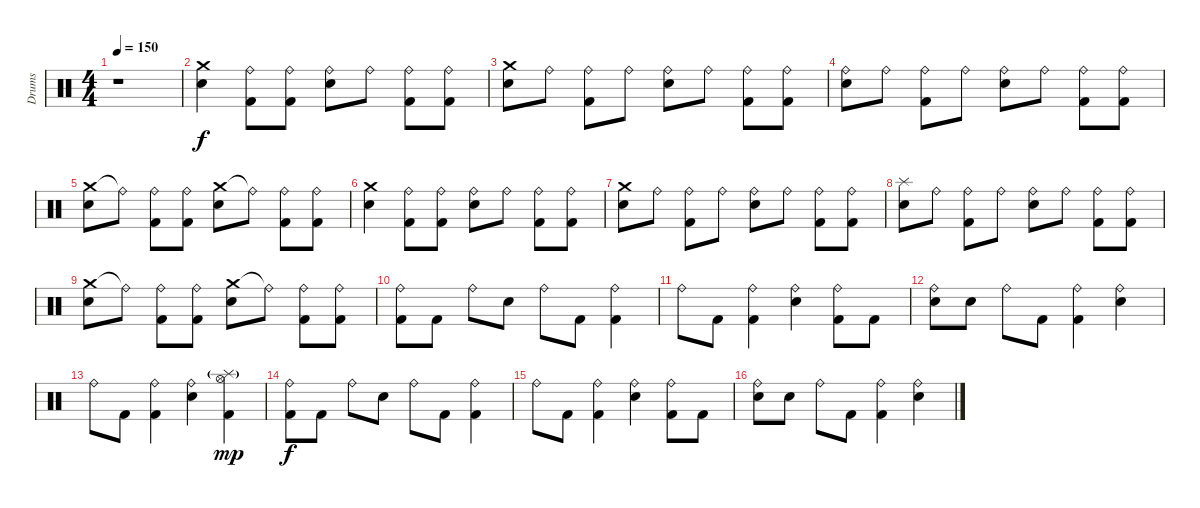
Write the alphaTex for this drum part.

\track ("Drums" "Drums") {instrument percussion}
\staff {score}
\articulation defaults
\ts (4 4)
\tempo 150
\clef neutral
\ks c
r.1{dy f} |
("Crash medium (hit)" "Electric Snare (hit)").4 ("Ride (bell)" "Kick (hit) 2").8 ("Ride (bell)" "Kick (hit) 2").8 ("Ride (bell)" "Electric Snare (hit)").8 "Ride (bell)".8 ("Ride (bell)" "Kick (hit) 2").8 ("Ride (bell)" "Kick (hit) 2").8 |
("Crash medium (hit)" "Electric Snare (hit)").8 "Ride (bell)".8 ("Ride (bell)" "Kick (hit) 2").8 "Ride (bell)".8 ("Ride (bell)" "Electric Snare (hit)").8 "Ride (bell)".8 ("Ride (bell)" "Kick (hit) 2").8 ("Ride (bell)" "Kick (hit) 2").8 |
("Ride (bell)" "Electric Snare (hit)").8 "Ride (bell)".8 ("Ride (bell)" "Kick (hit) 2").8 "Ride (bell)".8 ("Ride (bell)" "Electric Snare (hit)").8 "Ride (bell)".8 ("Ride (bell)" "Kick (hit) 2").8 ("Ride (bell)" "Kick (hit) 2").8 |
("Crash medium (hit)" "Electric Snare (hit)").8 "Ride (bell)"{t}.8 ("Ride (bell)" "Kick (hit) 2").8 ("Ride (bell)" "Kick (hit) 2").8 ("Crash medium (hit)" "Electric Snare (hit)").8 "Ride (bell)"{t}.8 ("Ride (bell)" "Kick (hit) 2").8 ("Ride (bell)" "Kick (hit) 2").8 |
("Crash medium (hit)" "Electric Snare (hit)").4 ("Ride (bell)" "Kick (hit) 2").8 ("Ride (bell)" "Kick (hit) 2").8 ("Ride (bell)" "Electric Snare (hit)").8 "Ride (bell)".8 ("Ride (bell)" "Kick (hit) 2").8 ("Ride (bell)" "Kick (hit) 2").8 |
("Crash medium (hit)" "Electric Snare (hit)").8 "Ride (bell)".8 ("Ride (bell)" "Kick (hit) 2").8 "Ride (bell)".8 ("Ride (bell)" "Electric Snare (hit)").8 "Ride (bell)".8 ("Ride (bell)" "Kick (hit) 2").8 ("Ride (bell)" "Kick (hit) 2").8 |
("Splash (hit)" "Electric Snare (hit)").8 "Ride (bell)".8 ("Ride (bell)" "Kick (hit) 2").8 "Ride (bell)".8 ("Ride (bell)" "Electric Snare (hit)").8 "Ride (bell)".8 ("Ride (bell)" "Kick (hit) 2").8 ("Ride (bell)" "Kick (hit) 2").8 |
("Crash medium (hit)" "Electric Snare (hit)").8 "Ride (bell)"{t}.8 ("Ride (bell)" "Kick (hit) 2").8 ("Ride (bell)" "Kick (hit) 2").8 ("Crash medium (hit)" "Electric Snare (hit)").8 "Ride (bell)"{t}.8 ("Ride (bell)" "Kick (hit) 2").8 ("Ride (bell)" "Kick (hit) 2").8 |
("Ride (bell)" "Kick (hit) 2").8 "Kick (hit) 2".8 "Ride (bell)".8 "Electric Snare (hit)".8 "Ride (bell)".8 "Kick (hit) 2".8 ("Ride (bell)" "Kick (hit) 2").4 |
"Ride (bell)".8 "Kick (hit) 2".8 ("Ride (bell)" "Kick (hit) 2").4 ("Ride (bell)" "Electric Snare (hit)").4 ("Ride (bell)" "Kick (hit) 2").8 "Kick (hit) 2".8 |
("Ride (bell)" "Electric Snare (hit)").8 "Electric Snare (hit)".8 "Ride (bell)".8 "Kick (hit) 2".8 ("Ride (bell)" "Kick (hit) 2").4 ("Ride (bell)" "Electric Snare (hit)").4 |
"Ride (bell)".8 "Kick (hit) 2".8 ("Ride (bell)" "Kick (hit) 2").4 ("Ride (bell)" "Electric Snare (hit)").4 ("Hi-Hat (open)" "Splash (hit)"{g} "Kick (hit) 2").4{dy mp} |
("Ride (bell)" "Kick (hit) 2").8{dy f} "Kick (hit) 2".8 "Ride (bell)".8 "Electric Snare (hit)".8 "Ride (bell)".8 "Kick (hit) 2".8 ("Ride (bell)" "Kick (hit) 2").4 |
"Ride (bell)".8 "Kick (hit) 2".8 ("Ride (bell)" "Kick (hit) 2").4 ("Ride (bell)" "Electric Snare (hit)").4 ("Ride (bell)" "Kick (hit) 2").8 "Kick (hit) 2".8 |
("Ride (bell)" "Electric Snare (hit)").8 "Electric Snare (hit)".8 "Ride (bell)".8 "Kick (hit) 2".8 ("Ride (bell)" "Kick (hit) 2").4 ("Ride (bell)" "Electric Snare (hit)").4
